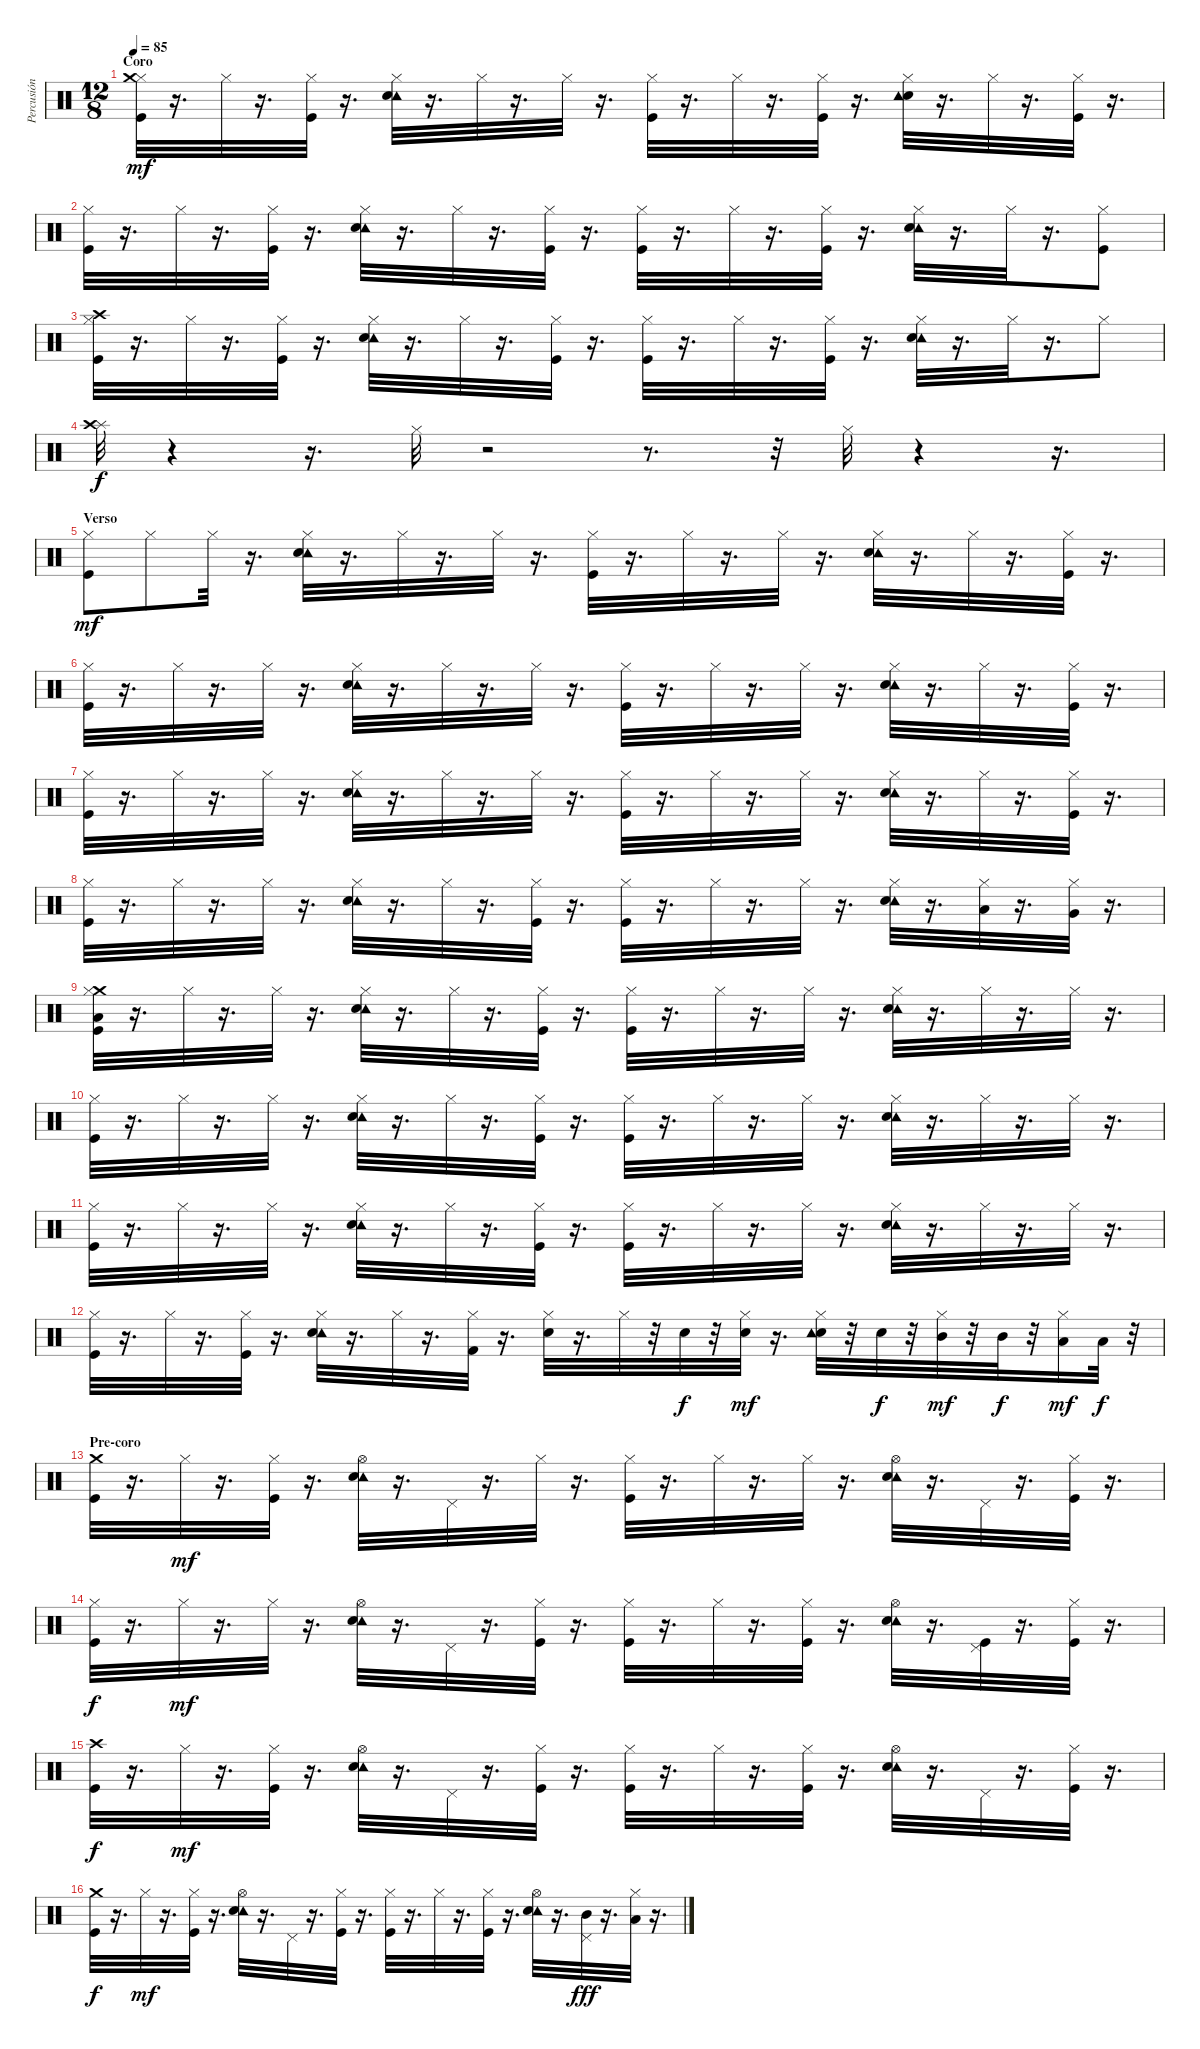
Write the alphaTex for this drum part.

\track ("Percusión" "Percusión") {instrument percussion}
\staff {score}
\articulation defaults
\ts (12 8)
\section ("" "Coro")
\tempo 85
\clef neutral
\ks c
("Hi-Hat (closed)" "Crash medium (hit)" "Kick (hit)").32{dy mf} r.16{d} "Hi-Hat (closed)".32 r.16{d} ("Hi-Hat (closed)" "Kick (hit)").32 r.16{d} ("Hi-Hat (closed)" "Tambourine (hit)" "Snare (hit) 2").32 r.16{d} "Hi-Hat (closed)".32 r.16{d} "Hi-Hat (closed)".32 r.16{d} ("Hi-Hat (closed)" "Kick (hit)").32 r.16{d} "Hi-Hat (closed)".32 r.16{d} ("Hi-Hat (closed)" "Kick (hit)").32 r.16{d} ("Snare (hit) 2" "Hi-Hat (closed)" "Tambourine (hit)").32 r.16{d} "Hi-Hat (closed)".32 r.16{d} ("Kick (hit)" "Hi-Hat (closed)").32 r.16{d} |
("Kick (hit)" "Hi-Hat (closed)").32 r.16{d} "Hi-Hat (closed)".32 r.16{d} ("Kick (hit)" "Hi-Hat (closed)").32 r.16{d} ("Tambourine (hit)" "Snare (hit) 2" "Hi-Hat (closed)").32 r.16{d} "Hi-Hat (closed)".32 r.16{d} ("Kick (hit)" "Hi-Hat (closed)").32 r.16{d} ("Kick (hit)" "Hi-Hat (closed)").32 r.16{d} "Hi-Hat (closed)".32 r.16{d} ("Kick (hit)" "Hi-Hat (closed)").32 r.16{d} ("Tambourine (hit)" "Snare (hit) 2" "Hi-Hat (closed)").32 r.16{d} "Hi-Hat (closed)".32 r.16{d} ("Kick (hit)" "Hi-Hat (closed)").8 |
("Kick (hit)" "Crash high (hit)" "Hi-Hat (closed)").32 r.16{d} "Hi-Hat (closed)".32 r.16{d} ("Kick (hit)" "Hi-Hat (closed)").32 r.16{d} ("Tambourine (hit)" "Snare (hit) 2" "Hi-Hat (closed)").32 r.16{d} "Hi-Hat (closed)".32 r.16{d} ("Kick (hit)" "Hi-Hat (closed)").32 r.16{d} ("Kick (hit)" "Hi-Hat (closed)").32 r.16{d} "Hi-Hat (closed)".32 r.16{d} ("Kick (hit)" "Hi-Hat (closed)").32 r.16{d} ("Tambourine (hit)" "Snare (hit) 2" "Hi-Hat (closed)").32 r.16{d} "Hi-Hat (closed)".32 r.16{d} "Hi-Hat (closed)".8 |
("Splash (hit)" "Crash high (hit)").32{dy f} r.4 r.16{d} "Hi-Hat (closed)".32 r.2 r.8{d} r.32 "Hi-Hat (closed)".32 r.4 r.16{d} |
\section ("" "Verso")
("Kick (hit)" "Hi-Hat (closed)").8{dy mf} "Hi-Hat (closed)".8 "Hi-Hat (closed)".32 r.16{d} ("Tambourine (hit)" "Snare (hit) 2" "Hi-Hat (closed)").32 r.16{d} "Hi-Hat (closed)".32 r.16{d} "Hi-Hat (closed)".32 r.16{d} ("Kick (hit)" "Hi-Hat (closed)").32 r.16{d} "Hi-Hat (closed)".32 r.16{d} "Hi-Hat (closed)".32 r.16{d} ("Tambourine (hit)" "Snare (hit) 2" "Hi-Hat (closed)").32 r.16{d} "Hi-Hat (closed)".32 r.16{d} ("Kick (hit)" "Hi-Hat (closed)").32 r.16{d} |
("Kick (hit)" "Hi-Hat (closed)").32 r.16{d} "Hi-Hat (closed)".32 r.16{d} "Hi-Hat (closed)".32 r.16{d} ("Tambourine (hit)" "Snare (hit) 2" "Hi-Hat (closed)").32 r.16{d} "Hi-Hat (closed)".32 r.16{d} "Hi-Hat (closed)".32 r.16{d} ("Kick (hit)" "Hi-Hat (closed)").32 r.16{d} "Hi-Hat (closed)".32 r.16{d} "Hi-Hat (closed)".32 r.16{d} ("Tambourine (hit)" "Snare (hit) 2" "Hi-Hat (closed)").32 r.16{d} "Hi-Hat (closed)".32 r.16{d} ("Kick (hit)" "Hi-Hat (closed)").32 r.16{d} |
("Kick (hit)" "Hi-Hat (closed)").32 r.16{d} "Hi-Hat (closed)".32 r.16{d} "Hi-Hat (closed)".32 r.16{d} ("Tambourine (hit)" "Snare (hit) 2" "Hi-Hat (closed)").32 r.16{d} "Hi-Hat (closed)".32 r.16{d} "Hi-Hat (closed)".32 r.16{d} ("Kick (hit)" "Hi-Hat (closed)").32 r.16{d} "Hi-Hat (closed)".32 r.16{d} "Hi-Hat (closed)".32 r.16{d} ("Tambourine (hit)" "Snare (hit) 2" "Hi-Hat (closed)").32 r.16{d} "Hi-Hat (closed)".32 r.16{d} ("Kick (hit)" "Hi-Hat (closed)").32 r.16{d} |
("Kick (hit)" "Hi-Hat (closed)").32 r.16{d} "Hi-Hat (closed)".32 r.16{d} "Hi-Hat (closed)".32 r.16{d} ("Tambourine (hit)" "Snare (hit) 2" "Hi-Hat (closed)").32 r.16{d} "Hi-Hat (closed)".32 r.16{d} ("Kick (hit)" "Hi-Hat (closed)").32 r.16{d} ("Kick (hit)" "Hi-Hat (closed)").32 r.16{d} "Hi-Hat (closed)".32 r.16{d} "Hi-Hat (closed)".32 r.16{d} ("Tambourine (hit)" "Snare (hit) 2" "Hi-Hat (closed)").32 r.16{d} ("Low Floor Tom (hit)" "Hi-Hat (closed)").32 r.16{d} ("Very Low Tom (hit)" "Hi-Hat (closed)").32 r.16{d} |
("Crash medium (hit)" "Kick (hit)" "Hi-Hat (closed)" "Low Tom (hit)").32 r.16{d} "Hi-Hat (closed)".32 r.16{d} "Hi-Hat (closed)".32 r.16{d} ("Tambourine (hit)" "Snare (hit) 2" "Hi-Hat (closed)").32 r.16{d} "Hi-Hat (closed)".32 r.16{d} ("Kick (hit)" "Hi-Hat (closed)").32 r.16{d} ("Kick (hit)" "Hi-Hat (closed)").32 r.16{d} "Hi-Hat (closed)".32 r.16{d} "Hi-Hat (closed)".32 r.16{d} ("Tambourine (hit)" "Snare (hit) 2" "Hi-Hat (closed)").32 r.16{d} "Hi-Hat (closed)".32 r.16{d} "Hi-Hat (closed)".32 r.16{d} |
("Kick (hit)" "Hi-Hat (closed)").32 r.16{d} "Hi-Hat (closed)".32 r.16{d} "Hi-Hat (closed)".32 r.16{d} ("Tambourine (hit)" "Snare (hit) 2" "Hi-Hat (closed)").32 r.16{d} "Hi-Hat (closed)".32 r.16{d} ("Kick (hit)" "Hi-Hat (closed)").32 r.16{d} ("Kick (hit)" "Hi-Hat (closed)").32 r.16{d} "Hi-Hat (closed)".32 r.16{d} "Hi-Hat (closed)".32 r.16{d} ("Tambourine (hit)" "Snare (hit) 2" "Hi-Hat (closed)").32 r.16{d} "Hi-Hat (closed)".32 r.16{d} "Hi-Hat (closed)".32 r.16{d} |
("Kick (hit)" "Hi-Hat (closed)").32 r.16{d} "Hi-Hat (closed)".32 r.16{d} "Hi-Hat (closed)".32 r.16{d} ("Tambourine (hit)" "Snare (hit) 2" "Hi-Hat (closed)").32 r.16{d} "Hi-Hat (closed)".32 r.16{d} ("Kick (hit)" "Hi-Hat (closed)").32 r.16{d} ("Kick (hit)" "Hi-Hat (closed)").32 r.16{d} "Hi-Hat (closed)".32 r.16{d} "Hi-Hat (closed)".32 r.16{d} ("Tambourine (hit)" "Snare (hit) 2" "Hi-Hat (closed)").32 r.16{d} "Hi-Hat (closed)".32 r.16{d} "Hi-Hat (closed)".32 r.16{d} |
("Kick (hit)" "Hi-Hat (closed)").32 r.16{d} "Hi-Hat (closed)".32 r.16{d} ("Kick (hit)" "Hi-Hat (closed)").32 r.16{d} ("Tambourine (hit)" "Snare (hit) 2" "Hi-Hat (closed)").32 r.16{d} "Hi-Hat (closed)".32 r.16{d} ("Kick (hit) 2" "Hi-Hat (closed)").32 r.16{d} ("Snare (hit) 2" "Hi-Hat (closed)").32 r.16{d} "Hi-Hat (closed)".32 r.32 "Snare (hit) 2".32{dy f} r.32 ("Snare (hit) 2" "Hi-Hat (closed)").32{dy mf} r.16{d} ("Snare (hit) 2" "Tambourine (hit)" "Hi-Hat (closed)").32 r.32 "Snare (hit) 2".32{dy f} r.32 ("Mid Tom (hit)" "Hi-Hat (closed)").32{dy mf} r.32 "Mid Tom (hit)".32{dy f} r.32 ("Low Tom (hit)" "Hi-Hat (closed)").16{dy mf} "Low Tom (hit)".32{dy f} r.32 |
\section ("" "Pre-coro")
("Kick (hit)" "Crash medium (hit)").32 r.16{d} "Hi-Hat (closed)".32{dy mf} r.16{d} ("Hi-Hat (closed)" "Kick (hit)").32 r.16{d} ("Hi-Hat (open)" "Tambourine (hit)" "Snare (hit) 2").32 r.16{d} "Pedal Hi-Hat (hit)".32 r.16{d} "Hi-Hat (closed)".32 r.16{d} ("Hi-Hat (closed)" "Kick (hit)").32 r.16{d} "Hi-Hat (closed)".32 r.16{d} "Hi-Hat (closed)".32 r.16{d} ("Hi-Hat (open)" "Tambourine (hit)" "Snare (hit) 2").32 r.16{d} "Pedal Hi-Hat (hit)".32 r.16{d} ("Kick (hit)" "Hi-Hat (closed)").32 r.16{d} |
("Hi-Hat (closed)" "Kick (hit)").32{dy f} r.16{d} "Hi-Hat (closed)".32{dy mf} r.16{d} "Hi-Hat (closed)".32 r.16{d} ("Hi-Hat (open)" "Tambourine (hit)" "Snare (hit) 2").32 r.16{d} "Pedal Hi-Hat (hit)".32 r.16{d} ("Kick (hit)" "Hi-Hat (closed)").32 r.16{d} ("Hi-Hat (closed)" "Kick (hit)").32 r.16{d} "Hi-Hat (closed)".32 r.16{d} ("Kick (hit)" "Hi-Hat (closed)").32 r.16{d} ("Hi-Hat (open)" "Tambourine (hit)" "Snare (hit) 2").32 r.16{d} ("Kick (hit)" "Pedal Hi-Hat (hit)").32 r.16{d} ("Kick (hit)" "Hi-Hat (closed)").32 r.16{d} |
("Crash high (hit)" "Kick (hit)").32{dy f} r.16{d} "Hi-Hat (closed)".32{dy mf} r.16{d} ("Hi-Hat (closed)" "Kick (hit)").32 r.16{d} ("Hi-Hat (open)" "Tambourine (hit)" "Snare (hit) 2").32 r.16{d} "Pedal Hi-Hat (hit)".32 r.16{d} ("Kick (hit)" "Hi-Hat (closed)").32 r.16{d} ("Hi-Hat (closed)" "Kick (hit)").32 r.16{d} "Hi-Hat (closed)".32 r.16{d} ("Kick (hit)" "Hi-Hat (closed)").32 r.16{d} ("Hi-Hat (open)" "Tambourine (hit)" "Snare (hit) 2").32 r.16{d} "Pedal Hi-Hat (hit)".32 r.16{d} ("Kick (hit)" "Hi-Hat (closed)").32 r.16{d} |
("Kick (hit)" "Crash medium (hit)").32{dy f} r.16{d} "Hi-Hat (closed)".32{dy mf} r.16{d} ("Hi-Hat (closed)" "Kick (hit)").32 r.16{d} ("Tambourine (hit)" "Hi-Hat (open)" "Snare (hit) 2").32 r.16{d} "Pedal Hi-Hat (hit)".32 r.16{d} ("Kick (hit)" "Hi-Hat (closed)").32 r.16{d} ("Hi-Hat (closed)" "Kick (hit)").32 r.16{d} "Hi-Hat (closed)".32 r.16{d} ("Kick (hit)" "Hi-Hat (closed)").32 r.16{d} ("Tambourine (hit)" "Hi-Hat (open)" "Snare (hit) 2").32 r.16{d} ("Mid Tom (hit)" "Pedal Hi-Hat (hit)").32{dy fff} r.16{d} ("Low Tom (hit)" "Hi-Hat (closed)").32 r.16{d}
